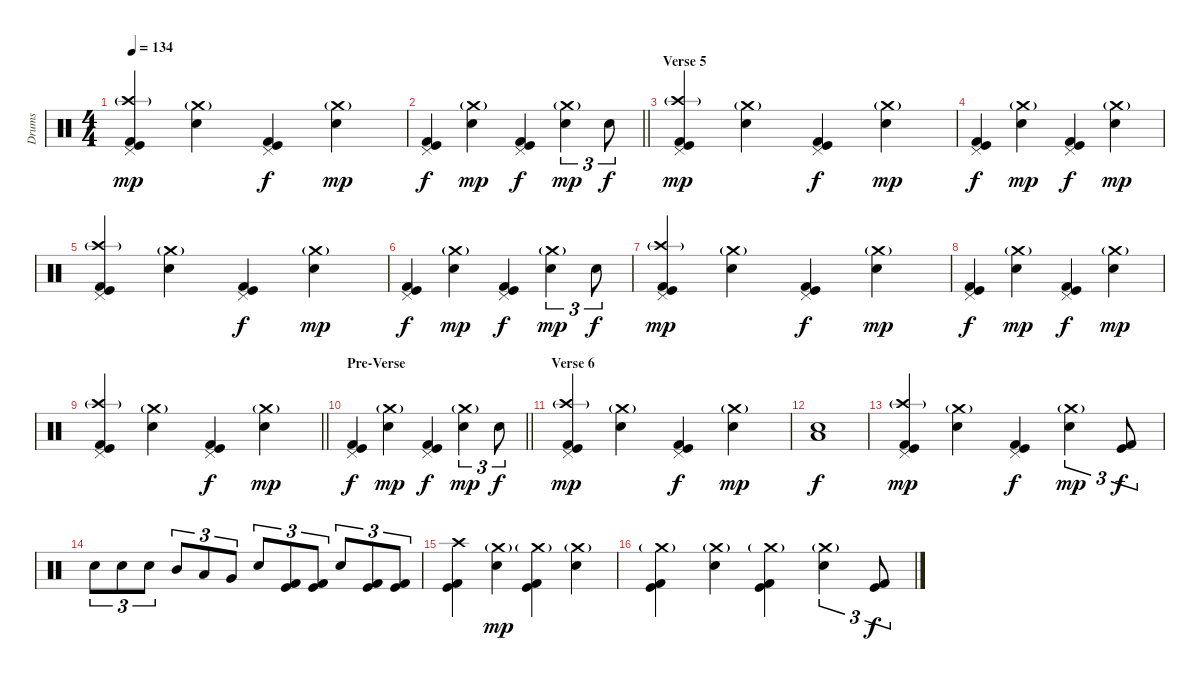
\track ("Drums" "Drums") {instrument percussion}
\staff {score}
\articulation defaults
\ts (4 4)
\tempo 134
\clef neutral
\ks c
("Pedal Hi-Hat (hit)" "Crash high (hit)"{g} "Kick (hit)" "Kick (hit) 2").4{dy mp} ("Crash medium (hit)"{g} "Electric Snare (hit)").4 ("Pedal Hi-Hat (hit)" "Kick (hit)" "Kick (hit) 2").4{dy f} ("Crash medium (hit)"{g} "Electric Snare (hit)").4{dy mp} |
\barLineRight lightlight
("Pedal Hi-Hat (hit)" "Kick (hit)" "Kick (hit) 2").4{dy f} ("Crash medium (hit)"{g} "Electric Snare (hit)").4{dy mp} ("Pedal Hi-Hat (hit)" "Kick (hit)" "Kick (hit) 2").4{dy f} ("Crash medium (hit)"{g} "Electric Snare (hit)").4{tu (3 2) dy mp} "Electric Snare (hit)".8{tu (3 2) dy f} |
\section ("" "Verse 5")
("Pedal Hi-Hat (hit)" "Crash high (hit)"{g} "Kick (hit)" "Kick (hit) 2").4{dy mp} ("Crash medium (hit)"{g} "Electric Snare (hit)").4 ("Pedal Hi-Hat (hit)" "Kick (hit)" "Kick (hit) 2").4{dy f} ("Crash medium (hit)"{g} "Electric Snare (hit)").4{dy mp} |
("Pedal Hi-Hat (hit)" "Kick (hit)" "Kick (hit) 2").4{dy f} ("Crash medium (hit)"{g} "Electric Snare (hit)").4{dy mp} ("Pedal Hi-Hat (hit)" "Kick (hit)" "Kick (hit) 2").4{dy f} ("Crash medium (hit)"{g} "Electric Snare (hit)").4{dy mp} |
("Pedal Hi-Hat (hit)" "Crash high (hit)"{g} "Kick (hit)" "Kick (hit) 2").4 ("Crash medium (hit)"{g} "Electric Snare (hit)").4 ("Pedal Hi-Hat (hit)" "Kick (hit)" "Kick (hit) 2").4{dy f} ("Crash medium (hit)"{g} "Electric Snare (hit)").4{dy mp} |
("Pedal Hi-Hat (hit)" "Kick (hit)" "Kick (hit) 2").4{dy f} ("Crash medium (hit)"{g} "Electric Snare (hit)").4{dy mp} ("Pedal Hi-Hat (hit)" "Kick (hit)" "Kick (hit) 2").4{dy f} ("Crash medium (hit)"{g} "Electric Snare (hit)").4{tu (3 2) dy mp} "Electric Snare (hit)".8{tu (3 2) dy f} |
("Pedal Hi-Hat (hit)" "Crash high (hit)"{g} "Kick (hit)" "Kick (hit) 2").4{dy mp} ("Crash medium (hit)"{g} "Electric Snare (hit)").4 ("Pedal Hi-Hat (hit)" "Kick (hit)" "Kick (hit) 2").4{dy f} ("Crash medium (hit)"{g} "Electric Snare (hit)").4{dy mp} |
("Pedal Hi-Hat (hit)" "Kick (hit)" "Kick (hit) 2").4{dy f} ("Crash medium (hit)"{g} "Electric Snare (hit)").4{dy mp} ("Pedal Hi-Hat (hit)" "Kick (hit)" "Kick (hit) 2").4{dy f} ("Crash medium (hit)"{g} "Electric Snare (hit)").4{dy mp} |
\barLineRight lightlight
("Pedal Hi-Hat (hit)" "Crash high (hit)"{g} "Kick (hit)" "Kick (hit) 2").4 ("Crash medium (hit)"{g} "Electric Snare (hit)").4 ("Pedal Hi-Hat (hit)" "Kick (hit)" "Kick (hit) 2").4{dy f} ("Crash medium (hit)"{g} "Electric Snare (hit)").4{dy mp} |
\section ("" "Pre-Verse")
\barLineRight lightlight
("Pedal Hi-Hat (hit)" "Kick (hit)" "Kick (hit) 2").4{dy f} ("Crash medium (hit)"{g} "Electric Snare (hit)").4{dy mp} ("Pedal Hi-Hat (hit)" "Kick (hit)" "Kick (hit) 2").4{dy f} ("Crash medium (hit)"{g} "Electric Snare (hit)").4{tu (3 2) dy mp} "Electric Snare (hit)".8{tu (3 2) dy f} |
\section ("" "Verse 6")
("Pedal Hi-Hat (hit)" "Crash high (hit)"{g} "Kick (hit)" "Kick (hit) 2").4{dy mp} ("Crash medium (hit)"{g} "Electric Snare (hit)").4 ("Pedal Hi-Hat (hit)" "Kick (hit)" "Kick (hit) 2").4{dy f} ("Crash medium (hit)"{g} "Electric Snare (hit)").4{dy mp} |
("Electric Snare (hit)" "Low Floor Tom (hit)").1{dy f} |
("Pedal Hi-Hat (hit)" "Crash high (hit)"{g} "Kick (hit)" "Kick (hit) 2").4{dy mp} ("Crash medium (hit)"{g} "Electric Snare (hit)").4 ("Pedal Hi-Hat (hit)" "Kick (hit)" "Kick (hit) 2").4{dy f} ("Crash medium (hit)"{g} "Electric Snare (hit)").4{tu (3 2) dy mp} ("Kick (hit)" "Kick (hit) 2").8{tu (3 2) dy f} |
"Electric Snare (hit)".8{tu (3 2)} "Electric Snare (hit)".8{tu (3 2)} "Electric Snare (hit)".8{tu (3 2)} "Mid Tom (hit)".8{tu (3 2)} "Low Tom (hit)".8{tu (3 2)} "Very Low Tom (hit)".8{tu (3 2)} "Electric Snare (hit)".8{tu (3 2)} ("Kick (hit)" "Kick (hit) 2").8{tu (3 2)} ("Kick (hit)" "Kick (hit) 2").8{tu (3 2)} "Electric Snare (hit)".8{tu (3 2)} ("Kick (hit)" "Kick (hit) 2").8{tu (3 2)} ("Kick (hit)" "Kick (hit) 2").8{tu (3 2)} |
("Crash high (hit)" "Kick (hit)" "Kick (hit) 2").4 ("Crash medium (hit)"{g} "Electric Snare (hit)").4{dy mp} ("Crash medium (hit)"{g} "Kick (hit)" "Kick (hit) 2").4 ("Crash medium (hit)"{g} "Electric Snare (hit)").4 |
("Crash medium (hit)"{g} "Kick (hit)" "Kick (hit) 2").4 ("Crash medium (hit)"{g} "Electric Snare (hit)").4 ("Crash medium (hit)"{g} "Kick (hit)" "Kick (hit) 2").4 ("Crash medium (hit)"{g} "Electric Snare (hit)").4{tu (3 2)} ("Kick (hit)" "Kick (hit) 2").8{tu (3 2) dy f}
